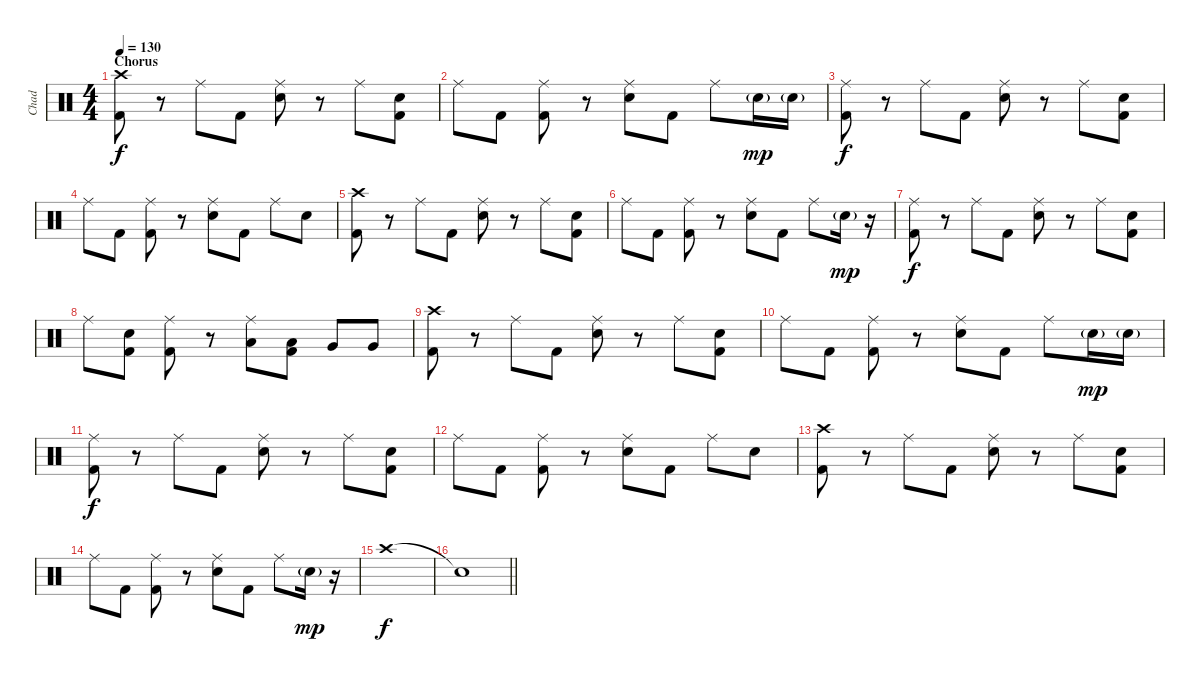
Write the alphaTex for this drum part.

\track ("Chad" "Chad") {instrument percussion}
\staff {score}
\articulation defaults
\ts (4 4)
\section ("" "Chorus")
\tempo 130
\clef neutral
\ks c
("Crash high (hit)" "Kick (hit) 2").8{dy f} r.8 "Ride (middle)".8 "Kick (hit) 2".8 ("Ride (middle)" "Electric Snare (hit)").8 r.8 "Ride (middle)".8 ("Electric Snare (hit)" "Kick (hit) 2").8 |
"Ride (middle)".8 "Kick (hit) 2".8 ("Ride (middle)" "Kick (hit) 2").8 r.8 ("Ride (middle)" "Electric Snare (hit)").8 "Kick (hit) 2".8 "Ride (middle)".8 "Electric Snare (hit)"{g}.16{dy mp} "Electric Snare (hit)"{g}.16 |
("Ride (middle)" "Kick (hit) 2").8{dy f} r.8 "Ride (middle)".8 "Kick (hit) 2".8 ("Ride (middle)" "Electric Snare (hit)").8 r.8 "Ride (middle)".8 ("Electric Snare (hit)" "Kick (hit) 2").8 |
"Ride (middle)".8 "Kick (hit) 2".8 ("Ride (middle)" "Kick (hit) 2").8 r.8 ("Ride (middle)" "Electric Snare (hit)").8 "Kick (hit) 2".8 "Ride (middle)".8 "Electric Snare (hit)".8 |
("Crash high (hit)" "Kick (hit) 2").8 r.8 "Ride (middle)".8 "Kick (hit) 2".8 ("Ride (middle)" "Electric Snare (hit)").8 r.8 "Ride (middle)".8 ("Electric Snare (hit)" "Kick (hit) 2").8 |
"Ride (middle)".8 "Kick (hit) 2".8 ("Ride (middle)" "Kick (hit) 2").8 r.8 ("Ride (middle)" "Electric Snare (hit)").8 "Kick (hit) 2".8 "Ride (middle)".8 "Electric Snare (hit)"{g}.16{dy mp} r.16 |
("Ride (middle)" "Kick (hit) 2").8{dy f} r.8 "Ride (middle)".8 "Kick (hit) 2".8 ("Ride (middle)" "Electric Snare (hit)").8 r.8 "Ride (middle)".8 ("Electric Snare (hit)" "Kick (hit) 2").8 |
"Ride (middle)".8 ("Electric Snare (hit)" "Kick (hit) 2").8 ("Ride (middle)" "Kick (hit) 2").8 r.8 ("Ride (middle)" "Low Tom (hit)").8 ("Low Tom (hit)" "Kick (hit) 2").8 "Very Low Tom (hit)".8 "Very Low Tom (hit)".8 |
("Crash high (hit)" "Kick (hit) 2").8 r.8 "Ride (middle)".8 "Kick (hit) 2".8 ("Ride (middle)" "Electric Snare (hit)").8 r.8 "Ride (middle)".8 ("Electric Snare (hit)" "Kick (hit) 2").8 |
"Ride (middle)".8 "Kick (hit) 2".8 ("Ride (middle)" "Kick (hit) 2").8 r.8 ("Ride (middle)" "Electric Snare (hit)").8 "Kick (hit) 2".8 "Ride (middle)".8 "Electric Snare (hit)"{g}.16{dy mp} "Electric Snare (hit)"{g}.16 |
("Ride (middle)" "Kick (hit) 2").8{dy f} r.8 "Ride (middle)".8 "Kick (hit) 2".8 ("Ride (middle)" "Electric Snare (hit)").8 r.8 "Ride (middle)".8 ("Electric Snare (hit)" "Kick (hit) 2").8 |
"Ride (middle)".8 "Kick (hit) 2".8 ("Ride (middle)" "Kick (hit) 2").8 r.8 ("Ride (middle)" "Electric Snare (hit)").8 "Kick (hit) 2".8 "Ride (middle)".8 "Electric Snare (hit)".8 |
("Crash high (hit)" "Kick (hit) 2").8 r.8 "Ride (middle)".8 "Kick (hit) 2".8 ("Ride (middle)" "Electric Snare (hit)").8 r.8 "Ride (middle)".8 ("Electric Snare (hit)" "Kick (hit) 2").8 |
"Ride (middle)".8 "Kick (hit) 2".8 ("Ride (middle)" "Kick (hit) 2").8 r.8 ("Ride (middle)" "Electric Snare (hit)").8 "Kick (hit) 2".8 "Ride (middle)".8 "Electric Snare (hit)"{g}.16{dy mp} r.16 |
"Crash high (hit)".1{dy f} |
\barLineRight lightlight "Snare (hit)"{t}.1
